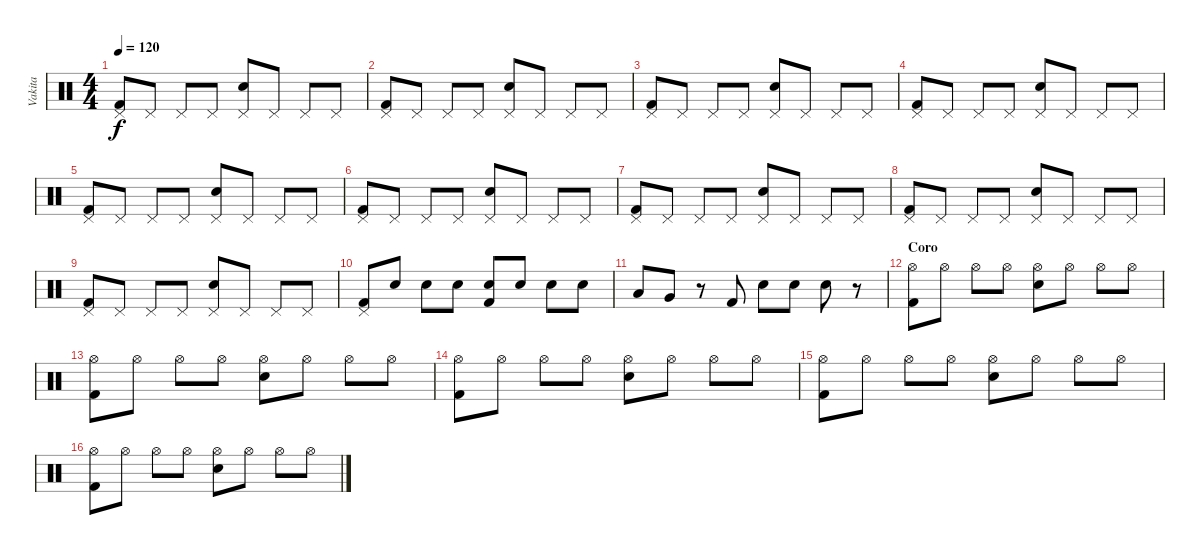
\track ("Vakita" "Vakita") {instrument percussion}
\staff {score}
\articulation defaults
\ts (4 4)
\tempo 120
\clef neutral
\ks c
("Pedal Hi-Hat (hit)" "Kick (hit) 2").8{dy f} "Pedal Hi-Hat (hit)".8 "Pedal Hi-Hat (hit)".8 "Pedal Hi-Hat (hit)".8 ("Pedal Hi-Hat (hit)" "Snare (hit) 2").8 "Pedal Hi-Hat (hit)".8 "Pedal Hi-Hat (hit)".8 "Pedal Hi-Hat (hit)".8 |
("Pedal Hi-Hat (hit)" "Kick (hit) 2").8 "Pedal Hi-Hat (hit)".8 "Pedal Hi-Hat (hit)".8 "Pedal Hi-Hat (hit)".8 ("Pedal Hi-Hat (hit)" "Snare (hit) 2").8 "Pedal Hi-Hat (hit)".8 "Pedal Hi-Hat (hit)".8 "Pedal Hi-Hat (hit)".8 |
("Pedal Hi-Hat (hit)" "Kick (hit) 2").8 "Pedal Hi-Hat (hit)".8 "Pedal Hi-Hat (hit)".8 "Pedal Hi-Hat (hit)".8 ("Pedal Hi-Hat (hit)" "Snare (hit) 2").8 "Pedal Hi-Hat (hit)".8 "Pedal Hi-Hat (hit)".8 "Pedal Hi-Hat (hit)".8 |
("Pedal Hi-Hat (hit)" "Kick (hit) 2").8 "Pedal Hi-Hat (hit)".8 "Pedal Hi-Hat (hit)".8 "Pedal Hi-Hat (hit)".8 ("Pedal Hi-Hat (hit)" "Snare (hit) 2").8 "Pedal Hi-Hat (hit)".8 "Pedal Hi-Hat (hit)".8 "Pedal Hi-Hat (hit)".8 |
("Pedal Hi-Hat (hit)" "Kick (hit) 2").8 "Pedal Hi-Hat (hit)".8 "Pedal Hi-Hat (hit)".8 "Pedal Hi-Hat (hit)".8 ("Pedal Hi-Hat (hit)" "Snare (hit) 2").8 "Pedal Hi-Hat (hit)".8 "Pedal Hi-Hat (hit)".8 "Pedal Hi-Hat (hit)".8 |
("Pedal Hi-Hat (hit)" "Kick (hit) 2").8 "Pedal Hi-Hat (hit)".8 "Pedal Hi-Hat (hit)".8 "Pedal Hi-Hat (hit)".8 ("Pedal Hi-Hat (hit)" "Snare (hit) 2").8 "Pedal Hi-Hat (hit)".8 "Pedal Hi-Hat (hit)".8 "Pedal Hi-Hat (hit)".8 |
("Pedal Hi-Hat (hit)" "Kick (hit) 2").8 "Pedal Hi-Hat (hit)".8 "Pedal Hi-Hat (hit)".8 "Pedal Hi-Hat (hit)".8 ("Pedal Hi-Hat (hit)" "Snare (hit) 2").8 "Pedal Hi-Hat (hit)".8 "Pedal Hi-Hat (hit)".8 "Pedal Hi-Hat (hit)".8 |
("Pedal Hi-Hat (hit)" "Kick (hit) 2").8 "Pedal Hi-Hat (hit)".8 "Pedal Hi-Hat (hit)".8 "Pedal Hi-Hat (hit)".8 ("Pedal Hi-Hat (hit)" "Snare (hit) 2").8 "Pedal Hi-Hat (hit)".8 "Pedal Hi-Hat (hit)".8 "Pedal Hi-Hat (hit)".8 |
("Pedal Hi-Hat (hit)" "Kick (hit) 2").8 "Pedal Hi-Hat (hit)".8 "Pedal Hi-Hat (hit)".8 "Pedal Hi-Hat (hit)".8 ("Pedal Hi-Hat (hit)" "Snare (hit) 2").8 "Pedal Hi-Hat (hit)".8 "Pedal Hi-Hat (hit)".8 "Pedal Hi-Hat (hit)".8 |
("Pedal Hi-Hat (hit)" "Kick (hit) 2").8 "Snare (hit) 2".8 "Snare (hit) 2".8 "Snare (hit) 2".8 ("Snare (hit) 2" "Kick (hit) 2").8 "Snare (hit) 2".8 "Snare (hit) 2".8 "Snare (hit) 2".8 |
"Low Tom (hit)".8 "Very Low Tom (hit)".8 r.8 "Kick (hit) 2".8 "Snare (hit) 2".8 "Snare (hit) 2".8 "Snare (hit) 2".8 r.8 |
\section ("" "Coro")
("Hi-Hat (open)" "Kick (hit) 2").8 "Hi-Hat (open)".8 "Hi-Hat (open)".8 "Hi-Hat (open)".8 ("Hi-Hat (open)" "Snare (hit) 2").8 "Hi-Hat (open)".8 "Hi-Hat (open)".8 "Hi-Hat (open)".8 |
("Hi-Hat (open)" "Kick (hit) 2").8 "Hi-Hat (open)".8 "Hi-Hat (open)".8 "Hi-Hat (open)".8 ("Hi-Hat (open)" "Snare (hit) 2").8 "Hi-Hat (open)".8 "Hi-Hat (open)".8 "Hi-Hat (open)".8 |
("Hi-Hat (open)" "Kick (hit) 2").8 "Hi-Hat (open)".8 "Hi-Hat (open)".8 "Hi-Hat (open)".8 ("Hi-Hat (open)" "Snare (hit) 2").8 "Hi-Hat (open)".8 "Hi-Hat (open)".8 "Hi-Hat (open)".8 |
("Hi-Hat (open)" "Kick (hit) 2").8 "Hi-Hat (open)".8 "Hi-Hat (open)".8 "Hi-Hat (open)".8 ("Hi-Hat (open)" "Snare (hit) 2").8 "Hi-Hat (open)".8 "Hi-Hat (open)".8 "Hi-Hat (open)".8 |
("Hi-Hat (open)" "Kick (hit) 2").8 "Hi-Hat (open)".8 "Hi-Hat (open)".8 "Hi-Hat (open)".8 ("Hi-Hat (open)" "Snare (hit) 2").8 "Hi-Hat (open)".8 "Hi-Hat (open)".8 "Hi-Hat (open)".8
